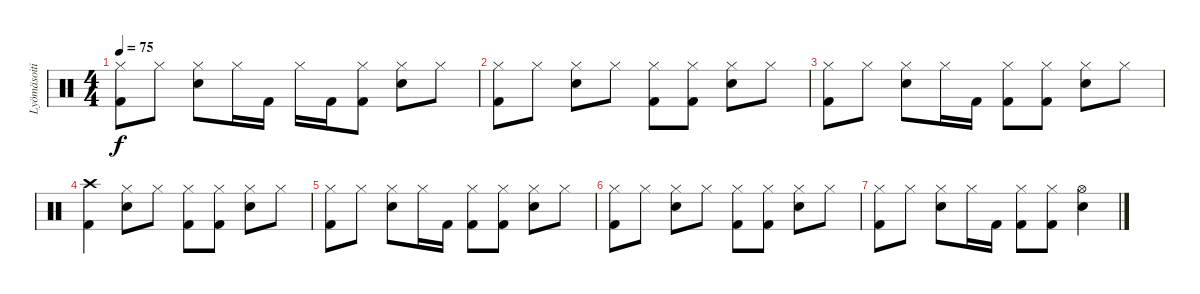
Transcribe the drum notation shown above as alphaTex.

\track ("Lyömäsoitin" "Lyömäsoiti") {instrument percussion}
\staff {score}
\articulation defaults
\ts (4 4)
\tempo 75
\clef neutral
\ks c
("Hi-Hat (closed)" "Kick (hit) 2").8{dy f} "Hi-Hat (closed)".8 ("Hi-Hat (closed)" "Snare (hit) 2").8 "Hi-Hat (closed)".16 "Kick (hit) 2".16 "Hi-Hat (closed)".16 "Kick (hit) 2".16 ("Hi-Hat (closed)" "Kick (hit) 2").8 ("Hi-Hat (closed)" "Snare (hit) 2").8 "Hi-Hat (closed)".8 |
("Hi-Hat (closed)" "Kick (hit) 2").8 "Hi-Hat (closed)".8 ("Hi-Hat (closed)" "Snare (hit) 2").8 "Hi-Hat (closed)".8 ("Hi-Hat (closed)" "Kick (hit) 2").8 ("Hi-Hat (closed)" "Kick (hit) 2").8 ("Hi-Hat (closed)" "Snare (hit) 2").8 "Hi-Hat (closed)".8 |
("Hi-Hat (closed)" "Kick (hit) 2").8 "Hi-Hat (closed)".8 ("Hi-Hat (closed)" "Snare (hit) 2").8 "Hi-Hat (closed)".16 "Kick (hit) 2".16 ("Hi-Hat (closed)" "Kick (hit) 2").8 ("Hi-Hat (closed)" "Kick (hit) 2").8 ("Hi-Hat (closed)" "Snare (hit) 2").8 "Hi-Hat (closed)".8 |
("Crash high (hit)" "Kick (hit) 2").4 ("Hi-Hat (closed)" "Snare (hit) 2").8 "Hi-Hat (closed)".8 ("Hi-Hat (closed)" "Kick (hit) 2").8 ("Hi-Hat (closed)" "Kick (hit) 2").8 ("Hi-Hat (closed)" "Snare (hit) 2").8 "Hi-Hat (closed)".8 |
("Hi-Hat (closed)" "Kick (hit) 2").8 "Hi-Hat (closed)".8 ("Hi-Hat (closed)" "Snare (hit) 2").8 "Hi-Hat (closed)".16 "Kick (hit) 2".16 ("Hi-Hat (closed)" "Kick (hit) 2").8 ("Hi-Hat (closed)" "Kick (hit) 2").8 ("Hi-Hat (closed)" "Snare (hit) 2").8 "Hi-Hat (closed)".8 |
("Hi-Hat (closed)" "Kick (hit) 2").8 "Hi-Hat (closed)".8 ("Hi-Hat (closed)" "Snare (hit) 2").8 "Hi-Hat (closed)".8 ("Hi-Hat (closed)" "Kick (hit) 2").8 ("Hi-Hat (closed)" "Kick (hit) 2").8 ("Hi-Hat (closed)" "Snare (hit) 2").8 "Hi-Hat (closed)".8 |
("Hi-Hat (closed)" "Kick (hit) 2").8 "Hi-Hat (closed)".8 ("Hi-Hat (closed)" "Snare (hit) 2").8 "Hi-Hat (closed)".16 "Kick (hit) 2".16 ("Hi-Hat (closed)" "Kick (hit) 2").8 ("Hi-Hat (closed)" "Kick (hit) 2").8 ("Hi-Hat (open)" "Snare (hit) 2").4
